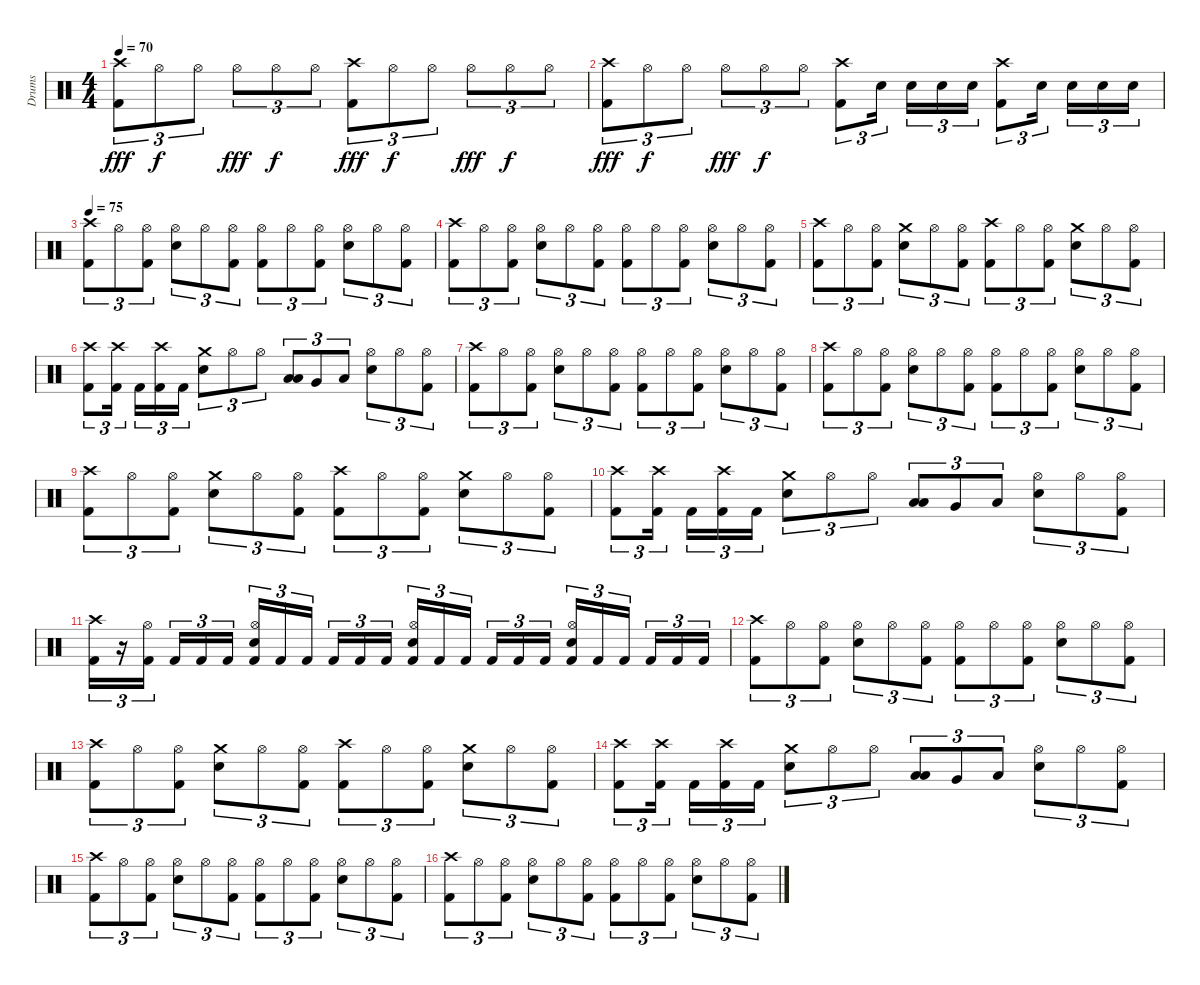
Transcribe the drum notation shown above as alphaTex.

\track ("Drums" "Drums") {instrument percussion}
\staff {score}
\articulation defaults
\ts (4 4)
\tempo 70
\clef neutral
\ks c
("Crash high (hit)" "Kick (hit) 2").8{tu (3 2) dy fff} "Hi-Hat (open)".8{tu (3 2) dy f} "Hi-Hat (open)".8{tu (3 2)} "Hi-Hat (open)".8{tu (3 2) dy fff} "Hi-Hat (open)".8{tu (3 2) dy f} "Hi-Hat (open)".8{tu (3 2)} ("Crash high (hit)" "Kick (hit) 2").8{tu (3 2) dy fff} "Hi-Hat (open)".8{tu (3 2) dy f} "Hi-Hat (open)".8{tu (3 2)} "Hi-Hat (open)".8{tu (3 2) dy fff} "Hi-Hat (open)".8{tu (3 2) dy f} "Hi-Hat (open)".8{tu (3 2)} |
("Crash high (hit)" "Kick (hit) 2").8{tu (3 2) dy fff} "Hi-Hat (open)".8{tu (3 2) dy f} "Hi-Hat (open)".8{tu (3 2)} "Hi-Hat (open)".8{tu (3 2) dy fff} "Hi-Hat (open)".8{tu (3 2) dy f} "Hi-Hat (open)".8{tu (3 2)} ("Crash high (hit)" "Kick (hit) 2").8{tu (3 2)} "Electric Snare (hit)".16{tu (3 2)} "Electric Snare (hit)".16{tu (3 2)} "Electric Snare (hit)".16{tu (3 2)} "Electric Snare (hit)".16{tu (3 2)} ("Crash high (hit)" "Kick (hit) 2").8{tu (3 2)} "Electric Snare (hit)".16{tu (3 2)} "Electric Snare (hit)".16{tu (3 2)} "Electric Snare (hit)".16{tu (3 2)} "Electric Snare (hit)".16{tu (3 2)} |
\tempo 75
("Crash high (hit)" "Kick (hit) 2").8{tu (3 2)} "Hi-Hat (open)".8{tu (3 2)} ("Hi-Hat (open)" "Kick (hit) 2").8{tu (3 2)} ("Hi-Hat (open)" "Electric Snare (hit)").8{tu (3 2)} "Hi-Hat (open)".8{tu (3 2)} ("Hi-Hat (open)" "Kick (hit) 2").8{tu (3 2)} ("Hi-Hat (open)" "Kick (hit) 2").8{tu (3 2)} "Hi-Hat (open)".8{tu (3 2)} ("Hi-Hat (open)" "Kick (hit) 2").8{tu (3 2)} ("Hi-Hat (open)" "Electric Snare (hit)").8{tu (3 2)} "Hi-Hat (open)".8{tu (3 2)} ("Hi-Hat (open)" "Kick (hit) 2").8{tu (3 2)} |
("Crash high (hit)" "Kick (hit) 2").8{tu (3 2)} "Hi-Hat (open)".8{tu (3 2)} ("Hi-Hat (open)" "Kick (hit) 2").8{tu (3 2)} ("Hi-Hat (open)" "Electric Snare (hit)").8{tu (3 2)} "Hi-Hat (open)".8{tu (3 2)} ("Hi-Hat (open)" "Kick (hit) 2").8{tu (3 2)} ("Hi-Hat (open)" "Kick (hit) 2").8{tu (3 2)} "Hi-Hat (open)".8{tu (3 2)} ("Hi-Hat (open)" "Kick (hit) 2").8{tu (3 2)} ("Hi-Hat (open)" "Electric Snare (hit)").8{tu (3 2)} "Hi-Hat (open)".8{tu (3 2)} ("Hi-Hat (open)" "Kick (hit) 2").8{tu (3 2)} |
("Crash high (hit)" "Kick (hit) 2").8{tu (3 2)} "Hi-Hat (open)".8{tu (3 2)} ("Hi-Hat (open)" "Kick (hit) 2").8{tu (3 2)} ("Crash medium (hit)" "Electric Snare (hit)").8{tu (3 2)} "Hi-Hat (open)".8{tu (3 2)} ("Hi-Hat (open)" "Kick (hit) 2").8{tu (3 2)} ("Crash high (hit)" "Kick (hit) 2").8{tu (3 2)} "Hi-Hat (open)".8{tu (3 2)} ("Hi-Hat (open)" "Kick (hit) 2").8{tu (3 2)} ("Crash medium (hit)" "Electric Snare (hit)").8{tu (3 2)} "Hi-Hat (open)".8{tu (3 2)} ("Hi-Hat (open)" "Kick (hit) 2").8{tu (3 2)} |
("Crash high (hit)" "Kick (hit) 2").8{tu (3 2)} ("Crash high (hit)" "Kick (hit) 2").16{tu (3 2)} "Kick (hit) 2".16{tu (3 2)} ("Crash high (hit)" "Kick (hit) 2").16{tu (3 2)} "Kick (hit) 2".16{tu (3 2)} ("Crash medium (hit)" "Electric Snare (hit)").8{tu (3 2)} "Hi-Hat (open)".8{tu (3 2)} "Hi-Hat (open)".8{tu (3 2)} ("Low Tom (hit)" "Low Tom (hit)").8{tu (3 2) bu 60} "Very Low Tom (hit)".8{tu (3 2)} "Low Floor Tom (hit)".8{tu (3 2)} ("Hi-Hat (open)" "Electric Snare (hit)").8{tu (3 2)} "Hi-Hat (open)".8{tu (3 2)} ("Hi-Hat (open)" "Kick (hit) 2").8{tu (3 2)} |
("Crash high (hit)" "Kick (hit) 2").8{tu (3 2)} "Hi-Hat (open)".8{tu (3 2)} ("Hi-Hat (open)" "Kick (hit) 2").8{tu (3 2)} ("Hi-Hat (open)" "Electric Snare (hit)").8{tu (3 2)} "Hi-Hat (open)".8{tu (3 2)} ("Hi-Hat (open)" "Kick (hit) 2").8{tu (3 2)} ("Hi-Hat (open)" "Kick (hit) 2").8{tu (3 2)} "Hi-Hat (open)".8{tu (3 2)} ("Hi-Hat (open)" "Kick (hit) 2").8{tu (3 2)} ("Hi-Hat (open)" "Electric Snare (hit)").8{tu (3 2)} "Hi-Hat (open)".8{tu (3 2)} ("Hi-Hat (open)" "Kick (hit) 2").8{tu (3 2)} |
("Crash high (hit)" "Kick (hit) 2").8{tu (3 2)} "Hi-Hat (open)".8{tu (3 2)} ("Hi-Hat (open)" "Kick (hit) 2").8{tu (3 2)} ("Hi-Hat (open)" "Electric Snare (hit)").8{tu (3 2)} "Hi-Hat (open)".8{tu (3 2)} ("Hi-Hat (open)" "Kick (hit) 2").8{tu (3 2)} ("Hi-Hat (open)" "Kick (hit) 2").8{tu (3 2)} "Hi-Hat (open)".8{tu (3 2)} ("Hi-Hat (open)" "Kick (hit) 2").8{tu (3 2)} ("Hi-Hat (open)" "Electric Snare (hit)").8{tu (3 2)} "Hi-Hat (open)".8{tu (3 2)} ("Hi-Hat (open)" "Kick (hit) 2").8{tu (3 2)} |
("Crash high (hit)" "Kick (hit) 2").8{tu (3 2)} "Hi-Hat (open)".8{tu (3 2)} ("Hi-Hat (open)" "Kick (hit) 2").8{tu (3 2)} ("Crash medium (hit)" "Electric Snare (hit)").8{tu (3 2)} "Hi-Hat (open)".8{tu (3 2)} ("Hi-Hat (open)" "Kick (hit) 2").8{tu (3 2)} ("Crash high (hit)" "Kick (hit) 2").8{tu (3 2)} "Hi-Hat (open)".8{tu (3 2)} ("Hi-Hat (open)" "Kick (hit) 2").8{tu (3 2)} ("Crash medium (hit)" "Electric Snare (hit)").8{tu (3 2)} "Hi-Hat (open)".8{tu (3 2)} ("Hi-Hat (open)" "Kick (hit) 2").8{tu (3 2)} |
("Crash high (hit)" "Kick (hit) 2").8{tu (3 2)} ("Crash high (hit)" "Kick (hit) 2").16{tu (3 2)} "Kick (hit) 2".16{tu (3 2)} ("Crash high (hit)" "Kick (hit) 2").16{tu (3 2)} "Kick (hit) 2".16{tu (3 2)} ("Crash medium (hit)" "Electric Snare (hit)").8{tu (3 2)} "Hi-Hat (open)".8{tu (3 2)} "Hi-Hat (open)".8{tu (3 2)} ("Low Tom (hit)" "Low Tom (hit)").8{tu (3 2) bu 60} "Very Low Tom (hit)".8{tu (3 2)} "Low Floor Tom (hit)".8{tu (3 2)} ("Hi-Hat (open)" "Electric Snare (hit)").8{tu (3 2)} "Hi-Hat (open)".8{tu (3 2)} ("Hi-Hat (open)" "Kick (hit) 2").8{tu (3 2)} |
("Crash high (hit)" "Kick (hit) 2").16{tu (3 2)} r.16{tu (3 2)} ("Hi-Hat (open)" "Kick (hit) 2").16{tu (3 2)} "Kick (hit) 2".16{tu (3 2)} "Kick (hit) 2".16{tu (3 2)} "Kick (hit) 2".16{tu (3 2)} ("Hi-Hat (open)" "Electric Snare (hit)" "Kick (hit) 2").16{tu (3 2)} "Kick (hit) 2".16{tu (3 2)} "Kick (hit) 2".16{tu (3 2)} "Kick (hit) 2".16{tu (3 2)} "Kick (hit) 2".16{tu (3 2)} "Kick (hit) 2".16{tu (3 2)} ("Hi-Hat (open)" "Electric Snare (hit)" "Kick (hit) 2").16{tu (3 2)} "Kick (hit) 2".16{tu (3 2)} "Kick (hit) 2".16{tu (3 2)} "Kick (hit) 2".16{tu (3 2)} "Kick (hit) 2".16{tu (3 2)} "Kick (hit) 2".16{tu (3 2)} ("Hi-Hat (open)" "Electric Snare (hit)" "Kick (hit) 2").16{tu (3 2)} "Kick (hit) 2".16{tu (3 2)} "Kick (hit) 2".16{tu (3 2)} "Kick (hit) 2".16{tu (3 2)} "Kick (hit) 2".16{tu (3 2)} "Kick (hit) 2".16{tu (3 2)} |
("Crash high (hit)" "Kick (hit) 2").8{tu (3 2)} "Hi-Hat (open)".8{tu (3 2)} ("Hi-Hat (open)" "Kick (hit) 2").8{tu (3 2)} ("Hi-Hat (open)" "Electric Snare (hit)").8{tu (3 2)} "Hi-Hat (open)".8{tu (3 2)} ("Hi-Hat (open)" "Kick (hit) 2").8{tu (3 2)} ("Hi-Hat (open)" "Kick (hit) 2").8{tu (3 2)} "Hi-Hat (open)".8{tu (3 2)} ("Hi-Hat (open)" "Kick (hit) 2").8{tu (3 2)} ("Hi-Hat (open)" "Electric Snare (hit)").8{tu (3 2)} "Hi-Hat (open)".8{tu (3 2)} ("Hi-Hat (open)" "Kick (hit) 2").8{tu (3 2)} |
("Crash high (hit)" "Kick (hit) 2").8{tu (3 2)} "Hi-Hat (open)".8{tu (3 2)} ("Hi-Hat (open)" "Kick (hit) 2").8{tu (3 2)} ("Crash medium (hit)" "Electric Snare (hit)").8{tu (3 2)} "Hi-Hat (open)".8{tu (3 2)} ("Hi-Hat (open)" "Kick (hit) 2").8{tu (3 2)} ("Crash high (hit)" "Kick (hit) 2").8{tu (3 2)} "Hi-Hat (open)".8{tu (3 2)} ("Hi-Hat (open)" "Kick (hit) 2").8{tu (3 2)} ("Crash medium (hit)" "Electric Snare (hit)").8{tu (3 2)} "Hi-Hat (open)".8{tu (3 2)} ("Hi-Hat (open)" "Kick (hit) 2").8{tu (3 2)} |
("Crash high (hit)" "Kick (hit) 2").8{tu (3 2)} ("Crash high (hit)" "Kick (hit) 2").16{tu (3 2)} "Kick (hit) 2".16{tu (3 2)} ("Crash high (hit)" "Kick (hit) 2").16{tu (3 2)} "Kick (hit) 2".16{tu (3 2)} ("Crash medium (hit)" "Electric Snare (hit)").8{tu (3 2)} "Hi-Hat (open)".8{tu (3 2)} "Hi-Hat (open)".8{tu (3 2)} ("Low Tom (hit)" "Low Tom (hit)").8{tu (3 2) bu 60} "Very Low Tom (hit)".8{tu (3 2)} "Low Floor Tom (hit)".8{tu (3 2)} ("Hi-Hat (open)" "Electric Snare (hit)").8{tu (3 2)} "Hi-Hat (open)".8{tu (3 2)} ("Hi-Hat (open)" "Kick (hit) 2").8{tu (3 2)} |
("Crash high (hit)" "Kick (hit) 2").8{tu (3 2)} "Hi-Hat (open)".8{tu (3 2)} ("Hi-Hat (open)" "Kick (hit) 2").8{tu (3 2)} ("Hi-Hat (open)" "Electric Snare (hit)").8{tu (3 2)} "Hi-Hat (open)".8{tu (3 2)} ("Hi-Hat (open)" "Kick (hit) 2").8{tu (3 2)} ("Hi-Hat (open)" "Kick (hit) 2").8{tu (3 2)} "Hi-Hat (open)".8{tu (3 2)} ("Hi-Hat (open)" "Kick (hit) 2").8{tu (3 2)} ("Hi-Hat (open)" "Electric Snare (hit)").8{tu (3 2)} "Hi-Hat (open)".8{tu (3 2)} ("Hi-Hat (open)" "Kick (hit) 2").8{tu (3 2)} |
("Crash high (hit)" "Kick (hit) 2").8{tu (3 2)} "Hi-Hat (open)".8{tu (3 2)} ("Hi-Hat (open)" "Kick (hit) 2").8{tu (3 2)} ("Hi-Hat (open)" "Electric Snare (hit)").8{tu (3 2)} "Hi-Hat (open)".8{tu (3 2)} ("Hi-Hat (open)" "Kick (hit) 2").8{tu (3 2)} ("Hi-Hat (open)" "Kick (hit) 2").8{tu (3 2)} "Hi-Hat (open)".8{tu (3 2)} ("Hi-Hat (open)" "Kick (hit) 2").8{tu (3 2)} ("Hi-Hat (open)" "Electric Snare (hit)").8{tu (3 2)} "Hi-Hat (open)".8{tu (3 2)} ("Hi-Hat (open)" "Kick (hit) 2").8{tu (3 2)}
